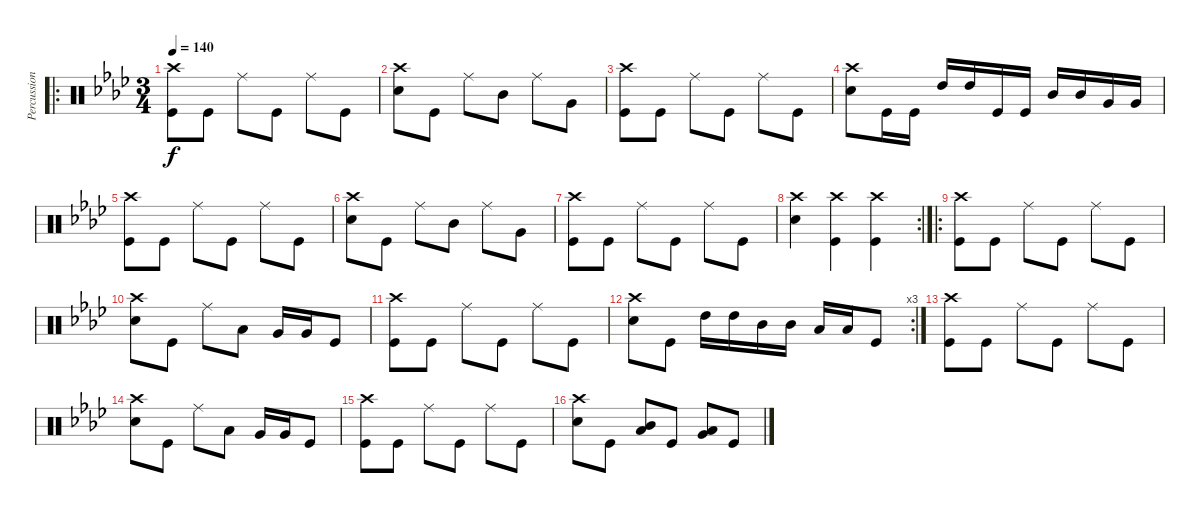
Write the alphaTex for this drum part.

\track ("Percussion" "Percussion") {instrument percussion}
\staff {score}
\articulation defaults
\ro
\ts (3 4)
\tempo 140
\clef neutral
\ks ab
("Crash high (hit)" "Kick (hit)").8{dy f} "Kick (hit)".8 "Ride (middle)".8 "Kick (hit)".8 "Ride (middle)".8 "Kick (hit)".8 |
("Crash high (hit)" "Snare (hit) 2").8 "Kick (hit)".8 "Ride (middle)".8 "Mid Tom (hit)".8 "Ride (middle)".8 "Very Low Tom (hit)".8 |
("Crash high (hit)" "Kick (hit)").8 "Kick (hit)".8 "Ride (middle)".8 "Kick (hit)".8 "Ride (middle)".8 "Kick (hit)".8 |
("Crash high (hit)" "Snare (hit) 2").8 "Kick (hit)".16 "Kick (hit)".16 "High Tom (hit)".16 "High Tom (hit)".16 "Kick (hit)".16 "Kick (hit)".16 "Mid Tom (hit)".16 "Mid Tom (hit)".16 "Very Low Tom (hit)".16 "Very Low Tom (hit)".16 |
("Crash high (hit)" "Kick (hit)").8 "Kick (hit)".8 "Ride (middle)".8 "Kick (hit)".8 "Ride (middle)".8 "Kick (hit)".8 |
("Crash high (hit)" "Snare (hit) 2").8 "Kick (hit)".8 "Ride (middle)".8 "Mid Tom (hit)".8 "Ride (middle)".8 "Very Low Tom (hit)".8 |
("Crash high (hit)" "Kick (hit)").8 "Kick (hit)".8 "Ride (middle)".8 "Kick (hit)".8 "Ride (middle)".8 "Kick (hit)".8 |
\rc 2
("Crash high (hit)" "Snare (hit) 2").4 ("Kick (hit)" "Crash high (hit)").4 ("Kick (hit)" "Crash high (hit)").4 |
\ro
("Crash high (hit)" "Kick (hit)").8 "Kick (hit)".8 "Ride (middle)".8 "Kick (hit)".8 "Ride (middle)".8 "Kick (hit)".8 |
("Crash high (hit)" "Snare (hit) 2").8 "Kick (hit)".8 "Ride (middle)".8 "Low Tom (hit)".8 "Very Low Tom (hit)".16 "Very Low Tom (hit)".16 "Kick (hit)".8 |
("Crash high (hit)" "Kick (hit)").8 "Kick (hit)".8 "Ride (middle)".8 "Kick (hit)".8 "Ride (middle)".8 "Kick (hit)".8 |
\rc 3
("Crash high (hit)" "Snare (hit) 2").8 "Kick (hit)".8 "High Tom (hit)".16 "High Tom (hit)".16 "Mid Tom (hit)".16 "Mid Tom (hit)".16 "Low Tom (hit)".16 "Low Tom (hit)".16 "Kick (hit)".8 |
("Crash high (hit)" "Kick (hit)").8 "Kick (hit)".8 "Ride (middle)".8 "Kick (hit)".8 "Ride (middle)".8 "Kick (hit)".8 |
("Crash high (hit)" "Snare (hit) 2").8 "Kick (hit)".8 "Ride (middle)".8 "Low Tom (hit)".8 "Very Low Tom (hit)".16 "Very Low Tom (hit)".16 "Kick (hit)".8 |
("Crash high (hit)" "Kick (hit)").8 "Kick (hit)".8 "Ride (middle)".8 "Kick (hit)".8 "Ride (middle)".8 "Kick (hit)".8 |
("Crash high (hit)" "Snare (hit) 2").8 "Kick (hit)".8 ("Mid Tom (hit)" "Low Tom (hit)").8 "Kick (hit)".8 ("Very Low Tom (hit)" "Low Tom (hit)").8 "Kick (hit)".8
